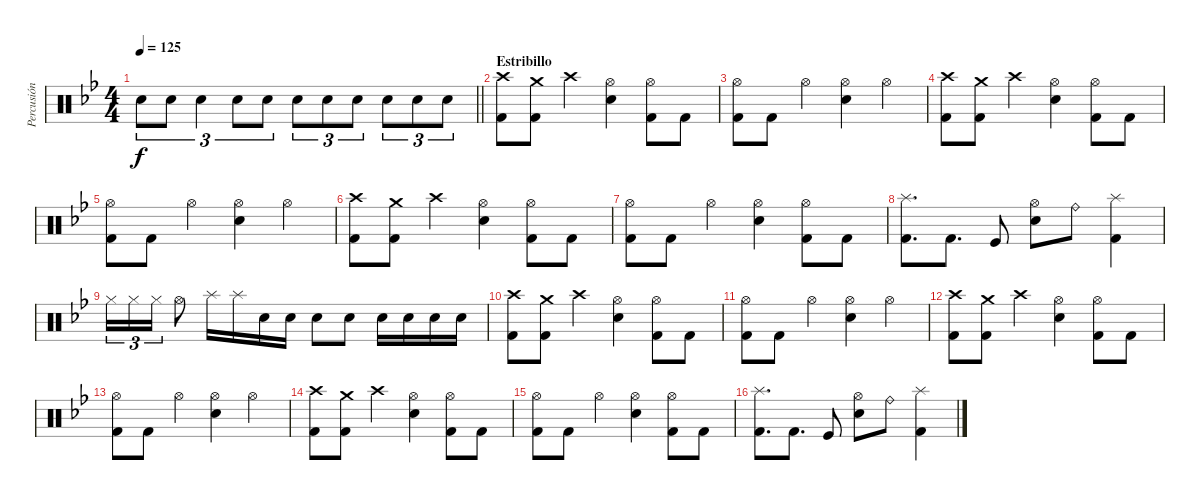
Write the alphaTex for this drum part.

\track ("Percusión" "Percusión") {instrument percussion}
\staff {score}
\articulation defaults
\ts (4 4)
\tempo 125
\clef neutral
\barLineRight lightlight
\ks gminor "Snare (hit) 2".8{tu (3 2) dy f} "Snare (hit) 2".8{tu (3 2)} "Snare (hit) 2".4{tu (3 2)} "Snare (hit) 2".8{tu (3 2)} "Snare (hit) 2".8{tu (3 2)} "Snare (hit) 2".8{tu (3 2)} "Snare (hit) 2".8{tu (3 2)} "Snare (hit) 2".8{tu (3 2)} "Snare (hit) 2".8{tu (3 2)} "Snare (hit) 2".8{tu (3 2)} "Snare (hit) 2".8{tu (3 2)}
|
\section ("" "Estribillo")
("Crash high (hit)" "Kick (hit) 2").8 ("Crash medium (hit)" "Kick (hit) 2").8 "Crash high (hit)".4 ("Hi-Hat (open)" "Snare (hit) 2").4 ("Hi-Hat (open)" "Kick (hit) 2").8 "Kick (hit) 2".8 |
("Hi-Hat (open)" "Kick (hit) 2").8 "Kick (hit) 2".8 "Hi-Hat (open)".4 ("Hi-Hat (open)" "Snare (hit) 2").4 "Hi-Hat (open)".4 |
("Crash high (hit)" "Kick (hit) 2").8 ("Crash medium (hit)" "Kick (hit) 2").8 "Crash high (hit)".4 ("Hi-Hat (open)" "Snare (hit) 2").4 ("Hi-Hat (open)" "Kick (hit) 2").8 "Kick (hit) 2".8 |
("Hi-Hat (open)" "Kick (hit) 2").8 "Kick (hit) 2".8 "Hi-Hat (open)".4 ("Hi-Hat (open)" "Snare (hit) 2").4 "Hi-Hat (open)".4 |
("Crash high (hit)" "Kick (hit) 2").8 ("Crash medium (hit)" "Kick (hit) 2").8 "Crash high (hit)".4 ("Hi-Hat (open)" "Snare (hit) 2").4 ("Hi-Hat (open)" "Kick (hit) 2").8 "Kick (hit) 2".8 |
("Hi-Hat (open)" "Kick (hit) 2").8 "Kick (hit) 2".8 "Hi-Hat (open)".4 ("Hi-Hat (open)" "Snare (hit) 2").4 ("Hi-Hat (open)" "Kick (hit) 2").8 "Kick (hit) 2".8 |
("Splash (hit)" "Kick (hit) 2").8{d} "Kick (hit) 2".8{d} "Kick (hit)".8 ("Hi-Hat (open)" "Snare (hit) 2").8 "Ride (bell)".8 ("Splash (hit)" "Kick (hit) 2").4 |
"Hi-Hat (closed)".16{tu (3 2)} "Hi-Hat (closed)".16{tu (3 2)} "Hi-Hat (closed)".16{tu (3 2)} "Hi-Hat (open)".8 "Splash (hit)".16 "Splash (hit)".16 "Snare (hit) 2".16 "Snare (hit) 2".16 "Snare (hit) 2".8 "Snare (hit) 2".8 "Snare (hit) 2".16 "Snare (hit) 2".16 "Snare (hit) 2".16 "Snare (hit) 2".16 |
("Crash high (hit)" "Kick (hit) 2").8 ("Crash medium (hit)" "Kick (hit) 2").8 "Crash high (hit)".4 ("Hi-Hat (open)" "Snare (hit) 2").4 ("Hi-Hat (open)" "Kick (hit) 2").8 "Kick (hit) 2".8 |
("Hi-Hat (open)" "Kick (hit) 2").8 "Kick (hit) 2".8 "Hi-Hat (open)".4 ("Hi-Hat (open)" "Snare (hit) 2").4 "Hi-Hat (open)".4 |
("Crash high (hit)" "Kick (hit) 2").8 ("Crash medium (hit)" "Kick (hit) 2").8 "Crash high (hit)".4 ("Hi-Hat (open)" "Snare (hit) 2").4 ("Hi-Hat (open)" "Kick (hit) 2").8 "Kick (hit) 2".8 |
("Hi-Hat (open)" "Kick (hit) 2").8 "Kick (hit) 2".8 "Hi-Hat (open)".4 ("Hi-Hat (open)" "Snare (hit) 2").4 "Hi-Hat (open)".4 |
("Crash high (hit)" "Kick (hit) 2").8 ("Crash medium (hit)" "Kick (hit) 2").8 "Crash high (hit)".4 ("Hi-Hat (open)" "Snare (hit) 2").4 ("Hi-Hat (open)" "Kick (hit) 2").8 "Kick (hit) 2".8 |
("Hi-Hat (open)" "Kick (hit) 2").8 "Kick (hit) 2".8 "Hi-Hat (open)".4 ("Hi-Hat (open)" "Snare (hit) 2").4 ("Hi-Hat (open)" "Kick (hit) 2").8 "Kick (hit) 2".8 |
("Splash (hit)" "Kick (hit) 2").8{d} "Kick (hit) 2".8{d} "Kick (hit)".8 ("Hi-Hat (open)" "Snare (hit) 2").8 "Ride (bell)".8 ("Splash (hit)" "Kick (hit) 2").4
